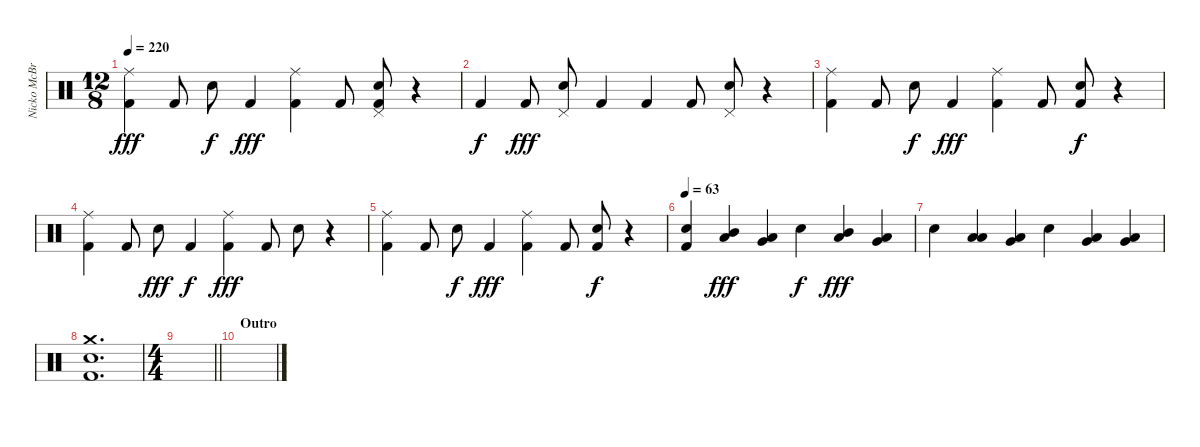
\track ("Nicko McBrain" "Nicko McBr") {instrument percussion}
\staff {score}
\articulation defaults
\ts (12 8)
\tempo 220
\clef neutral
\ks c
("Ride (middle)" "Kick (hit) 2").4{dy fff} "Kick (hit) 2".8 "Snare (hit) 2".8{dy f} "Kick (hit) 2".4{dy fff} ("Ride (middle)" "Kick (hit) 2").4 "Kick (hit) 2".8 ("Snare (hit) 2" "Pedal Hi-Hat (hit)" "Kick (hit) 2").8 r.4 |
"Kick (hit) 2".4{dy f} "Kick (hit) 2".8{dy fff} ("Snare (hit) 2" "Pedal Hi-Hat (hit)").8 "Kick (hit) 2".4 "Kick (hit) 2".4 "Kick (hit) 2".8 ("Snare (hit) 2" "Pedal Hi-Hat (hit)").8 r.4 |
("Ride (middle)" "Kick (hit) 2").4 "Kick (hit) 2".8 "Snare (hit) 2".8{dy f} "Kick (hit) 2".4{dy fff} ("Ride (middle)" "Kick (hit) 2").4 "Kick (hit) 2".8 ("Snare (hit) 2" "Kick (hit) 2").8{dy f} r.4 |
("Ride (middle)" "Kick (hit) 2").4 "Kick (hit) 2".8 "Snare (hit) 2".8{dy fff} "Kick (hit) 2".4{dy f} ("Ride (middle)" "Kick (hit) 2").4{dy fff} "Kick (hit) 2".8 "Snare (hit) 2".8 r.4 |
("Ride (middle)" "Kick (hit) 2").4 "Kick (hit) 2".8 "Snare (hit) 2".8{dy f} "Kick (hit) 2".4{dy fff} ("Ride (middle)" "Kick (hit) 2").4 "Kick (hit) 2".8 ("Snare (hit) 2" "Kick (hit) 2").8{dy f} r.4 |
\tempo 63
("Snare (hit) 2" "Kick (hit) 2").4 ("Low Tom (hit)" "Mid Tom (hit)").4{dy fff} ("Low Tom (hit)" "Very Low Tom (hit)").4 "Snare (hit) 2".4{dy f} ("Low Tom (hit)" "Mid Tom (hit)").4{dy fff} ("Low Tom (hit)" "Very Low Tom (hit)").4 |
"Snare (hit) 2".4 ("Low Tom (hit)" "Low Tom (hit)").4 ("Low Tom (hit)" "Very Low Tom (hit)").4 "Snare (hit) 2".4 ("Low Tom (hit)" "Very Low Tom (hit)").4 ("Very Low Tom (hit)" "Low Floor Tom (hit)").4 |
("Snare (hit) 2" "Crash medium (hit)" "Kick (hit) 2").1{d} |
\ts (4 4)
\barLineRight lightlight
|
\section ("" "Outro")
